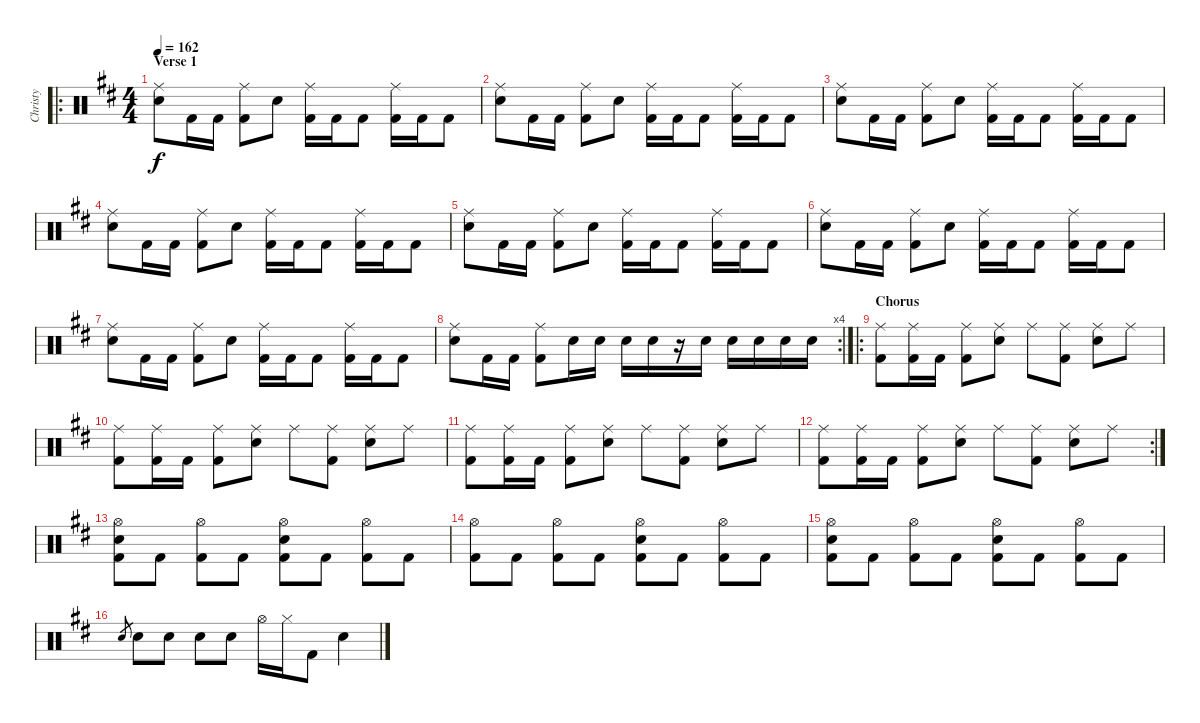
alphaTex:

\track ("Christy" "Christy") {instrument percussion}
\staff {score}
\articulation defaults
\ro
\ts (4 4)
\section ("" "Verse 1")
\tempo 162
\clef neutral
\ks d
("Ride (middle)" "Snare (hit) 2").8{dy f} "Kick (hit) 2".16 "Kick (hit) 2".16 ("Ride (middle)" "Kick (hit) 2").8 "Snare (hit) 2".8 ("Ride (middle)" "Kick (hit) 2").16 "Kick (hit) 2".16 "Kick (hit) 2".8 ("Ride (middle)" "Kick (hit) 2").16 "Kick (hit) 2".16 "Kick (hit) 2".8 |
("Ride (middle)" "Snare (hit) 2").8 "Kick (hit) 2".16 "Kick (hit) 2".16 ("Ride (middle)" "Kick (hit) 2").8 "Snare (hit) 2".8 ("Ride (middle)" "Kick (hit) 2").16 "Kick (hit) 2".16 "Kick (hit) 2".8 ("Ride (middle)" "Kick (hit) 2").16 "Kick (hit) 2".16 "Kick (hit) 2".8 |
("Ride (middle)" "Snare (hit) 2").8 "Kick (hit) 2".16 "Kick (hit) 2".16 ("Ride (middle)" "Kick (hit) 2").8 "Snare (hit) 2".8 ("Ride (middle)" "Kick (hit) 2").16 "Kick (hit) 2".16 "Kick (hit) 2".8 ("Ride (middle)" "Kick (hit) 2").16 "Kick (hit) 2".16 "Kick (hit) 2".8 |
("Ride (middle)" "Snare (hit) 2").8 "Kick (hit) 2".16 "Kick (hit) 2".16 ("Ride (middle)" "Kick (hit) 2").8 "Snare (hit) 2".8 ("Ride (middle)" "Kick (hit) 2").16 "Kick (hit) 2".16 "Kick (hit) 2".8 ("Ride (middle)" "Kick (hit) 2").16 "Kick (hit) 2".16 "Kick (hit) 2".8 |
("Ride (middle)" "Snare (hit) 2").8 "Kick (hit) 2".16 "Kick (hit) 2".16 ("Ride (middle)" "Kick (hit) 2").8 "Snare (hit) 2".8 ("Ride (middle)" "Kick (hit) 2").16 "Kick (hit) 2".16 "Kick (hit) 2".8 ("Ride (middle)" "Kick (hit) 2").16 "Kick (hit) 2".16 "Kick (hit) 2".8 |
("Ride (middle)" "Snare (hit) 2").8 "Kick (hit) 2".16 "Kick (hit) 2".16 ("Ride (middle)" "Kick (hit) 2").8 "Snare (hit) 2".8 ("Ride (middle)" "Kick (hit) 2").16 "Kick (hit) 2".16 "Kick (hit) 2".8 ("Ride (middle)" "Kick (hit) 2").16 "Kick (hit) 2".16 "Kick (hit) 2".8 |
("Ride (middle)" "Snare (hit) 2").8 "Kick (hit) 2".16 "Kick (hit) 2".16 ("Ride (middle)" "Kick (hit) 2").8 "Snare (hit) 2".8 ("Ride (middle)" "Kick (hit) 2").16 "Kick (hit) 2".16 "Kick (hit) 2".8 ("Ride (middle)" "Kick (hit) 2").16 "Kick (hit) 2".16 "Kick (hit) 2".8 |
\rc 4
("Ride (middle)" "Snare (hit) 2").8 "Kick (hit) 2".16 "Kick (hit) 2".16 ("Ride (middle)" "Kick (hit) 2").8 "Snare (hit) 2".16 "Snare (hit) 2".16 "Snare (hit) 2".16 "Snare (hit) 2".16 r.16 "Snare (hit) 2".16 "Snare (hit) 2".16 "Snare (hit) 2".16 "Snare (hit) 2".16 "Snare (hit) 2".16 |
\ro
\section ("" "Chorus")
("Ride (middle)" "Kick (hit) 2").8 ("Ride (middle)" "Kick (hit) 2").16 "Kick (hit) 2".16 ("Ride (middle)" "Kick (hit) 2").8 ("Ride (middle)" "Snare (hit) 2").8 "Ride (middle)".8 ("Ride (middle)" "Kick (hit) 2").8 ("Ride (middle)" "Snare (hit) 2").8 "Ride (middle)".8 |
("Ride (middle)" "Kick (hit) 2").8 ("Ride (middle)" "Kick (hit) 2").16 "Kick (hit) 2".16 ("Ride (middle)" "Kick (hit) 2").8 ("Ride (middle)" "Snare (hit) 2").8 "Ride (middle)".8 ("Ride (middle)" "Kick (hit) 2").8 ("Ride (middle)" "Snare (hit) 2").8 "Ride (middle)".8 |
("Ride (middle)" "Kick (hit) 2").8 ("Ride (middle)" "Kick (hit) 2").16 "Kick (hit) 2".16 ("Ride (middle)" "Kick (hit) 2").8 ("Ride (middle)" "Snare (hit) 2").8 "Ride (middle)".8 ("Ride (middle)" "Kick (hit) 2").8 ("Ride (middle)" "Snare (hit) 2").8 "Ride (middle)".8 |
\rc 2
("Ride (middle)" "Kick (hit) 2").8 ("Ride (middle)" "Kick (hit) 2").16 "Kick (hit) 2".16 ("Ride (middle)" "Kick (hit) 2").8 ("Ride (middle)" "Snare (hit) 2").8 "Ride (middle)".8 ("Ride (middle)" "Kick (hit) 2").8 ("Ride (middle)" "Snare (hit) 2").8 "Ride (middle)".8 |
("Hi-Hat (open)" "Snare (hit) 2" "Kick (hit) 2").8 "Kick (hit) 2".8 ("Hi-Hat (open)" "Kick (hit) 2").8 "Kick (hit) 2".8 ("Hi-Hat (open)" "Snare (hit) 2" "Kick (hit) 2").8 "Kick (hit) 2".8 ("Hi-Hat (open)" "Kick (hit) 2").8 "Kick (hit) 2".8 |
("Hi-Hat (open)" "Kick (hit) 2").8 "Kick (hit) 2".8 ("Hi-Hat (open)" "Kick (hit) 2").8 "Kick (hit) 2".8 ("Hi-Hat (open)" "Snare (hit) 2" "Kick (hit) 2").8 "Kick (hit) 2".8 ("Hi-Hat (open)" "Kick (hit) 2").8 "Kick (hit) 2".8 |
("Hi-Hat (open)" "Snare (hit) 2" "Kick (hit) 2").8 "Kick (hit) 2".8 ("Hi-Hat (open)" "Kick (hit) 2").8 "Kick (hit) 2".8 ("Hi-Hat (open)" "Snare (hit) 2" "Kick (hit) 2").8 "Kick (hit) 2".8 ("Hi-Hat (open)" "Kick (hit) 2").8 "Kick (hit) 2".8 |
"Snare (hit) 2".8{gr} "Snare (hit) 2".8 "Snare (hit) 2".8 "Snare (hit) 2".8 "Snare (hit) 2".8 "Hi-Hat (open)".16 "Hi-Hat (closed)".16 "Kick (hit) 2".8 "Snare (hit) 2".4
